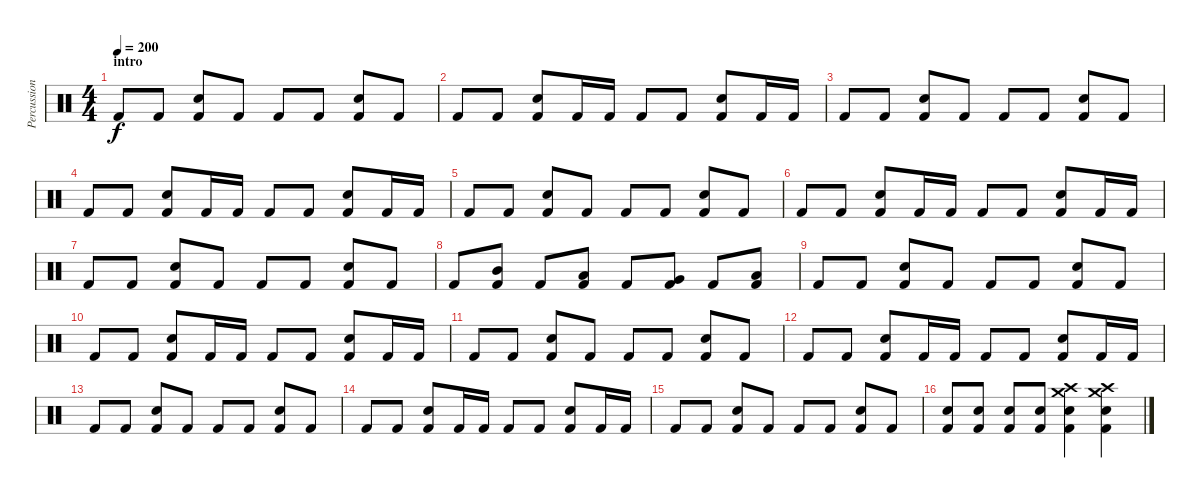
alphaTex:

\track ("Percussions" "Percussion") {instrument percussion}
\staff {score}
\articulation defaults
\ts (4 4)
\section ("" "intro")
\tempo 200
\clef neutral
\ks c "Kick (hit) 2".8{dy f} "Kick (hit) 2".8
("Electric Snare (hit)" "Kick (hit) 2").8 "Kick (hit) 2".8 "Kick (hit) 2".8 "Kick (hit) 2".8 ("Electric Snare (hit)" "Kick (hit) 2").8 "Kick (hit) 2".8 |
"Kick (hit) 2".8 "Kick (hit) 2".8 ("Electric Snare (hit)" "Kick (hit) 2").8 "Kick (hit) 2".16 "Kick (hit) 2".16 "Kick (hit) 2".8 "Kick (hit) 2".8 ("Electric Snare (hit)" "Kick (hit) 2").8 "Kick (hit) 2".16 "Kick (hit) 2".16 |
"Kick (hit) 2".8 "Kick (hit) 2".8 ("Electric Snare (hit)" "Kick (hit) 2").8 "Kick (hit) 2".8 "Kick (hit) 2".8 "Kick (hit) 2".8 ("Electric Snare (hit)" "Kick (hit) 2").8 "Kick (hit) 2".8 |
"Kick (hit) 2".8 "Kick (hit) 2".8 ("Electric Snare (hit)" "Kick (hit) 2").8 "Kick (hit) 2".16 "Kick (hit) 2".16 "Kick (hit) 2".8 "Kick (hit) 2".8 ("Electric Snare (hit)" "Kick (hit) 2").8 "Kick (hit) 2".16 "Kick (hit) 2".16 |
"Kick (hit) 2".8 "Kick (hit) 2".8 ("Electric Snare (hit)" "Kick (hit) 2").8 "Kick (hit) 2".8 "Kick (hit) 2".8 "Kick (hit) 2".8 ("Electric Snare (hit)" "Kick (hit) 2").8 "Kick (hit) 2".8 |
"Kick (hit) 2".8 "Kick (hit) 2".8 ("Electric Snare (hit)" "Kick (hit) 2").8 "Kick (hit) 2".16 "Kick (hit) 2".16 "Kick (hit) 2".8 "Kick (hit) 2".8 ("Electric Snare (hit)" "Kick (hit) 2").8 "Kick (hit) 2".16 "Kick (hit) 2".16 |
"Kick (hit) 2".8 "Kick (hit) 2".8 ("Electric Snare (hit)" "Kick (hit) 2").8 "Kick (hit) 2".8 "Kick (hit) 2".8 "Kick (hit) 2".8 ("Electric Snare (hit)" "Kick (hit) 2").8 "Kick (hit) 2".8 |
"Kick (hit) 2".8 ("Mid Tom (hit)" "Kick (hit) 2").8 "Kick (hit) 2".8 ("Low Tom (hit)" "Kick (hit) 2").8 "Kick (hit) 2".8 ("Very Low Tom (hit)" "Kick (hit) 2").8 "Kick (hit) 2".8 ("Low Floor Tom (hit)" "Kick (hit) 2").8 |
"Kick (hit) 2".8 "Kick (hit) 2".8 ("Electric Snare (hit)" "Kick (hit) 2").8 "Kick (hit) 2".8 "Kick (hit) 2".8 "Kick (hit) 2".8 ("Electric Snare (hit)" "Kick (hit) 2").8 "Kick (hit) 2".8 |
"Kick (hit) 2".8 "Kick (hit) 2".8 ("Electric Snare (hit)" "Kick (hit) 2").8 "Kick (hit) 2".16 "Kick (hit) 2".16 "Kick (hit) 2".8 "Kick (hit) 2".8 ("Electric Snare (hit)" "Kick (hit) 2").8 "Kick (hit) 2".16 "Kick (hit) 2".16 |
"Kick (hit) 2".8 "Kick (hit) 2".8 ("Electric Snare (hit)" "Kick (hit) 2").8 "Kick (hit) 2".8 "Kick (hit) 2".8 "Kick (hit) 2".8 ("Electric Snare (hit)" "Kick (hit) 2").8 "Kick (hit) 2".8 |
"Kick (hit) 2".8 "Kick (hit) 2".8 ("Electric Snare (hit)" "Kick (hit) 2").8 "Kick (hit) 2".16 "Kick (hit) 2".16 "Kick (hit) 2".8 "Kick (hit) 2".8 ("Electric Snare (hit)" "Kick (hit) 2").8 "Kick (hit) 2".16 "Kick (hit) 2".16 |
"Kick (hit) 2".8 "Kick (hit) 2".8 ("Electric Snare (hit)" "Kick (hit) 2").8 "Kick (hit) 2".8 "Kick (hit) 2".8 "Kick (hit) 2".8 ("Electric Snare (hit)" "Kick (hit) 2").8 "Kick (hit) 2".8 |
"Kick (hit) 2".8 "Kick (hit) 2".8 ("Electric Snare (hit)" "Kick (hit) 2").8 "Kick (hit) 2".16 "Kick (hit) 2".16 "Kick (hit) 2".8 "Kick (hit) 2".8 ("Electric Snare (hit)" "Kick (hit) 2").8 "Kick (hit) 2".16 "Kick (hit) 2".16 |
"Kick (hit) 2".8 "Kick (hit) 2".8 ("Electric Snare (hit)" "Kick (hit) 2").8 "Kick (hit) 2".8 "Kick (hit) 2".8 "Kick (hit) 2".8 ("Electric Snare (hit)" "Kick (hit) 2").8 "Kick (hit) 2".8 |
("Electric Snare (hit)" "Kick (hit) 2").8 ("Electric Snare (hit)" "Kick (hit) 2").8 ("Electric Snare (hit)" "Kick (hit) 2").8 ("Electric Snare (hit)" "Kick (hit) 2").8 ("Crash medium (hit)" "Crash high (hit)" "Electric Snare (hit)" "Kick (hit) 2").4 ("Crash medium (hit)" "Crash high (hit)" "Electric Snare (hit)" "Kick (hit) 2").4
